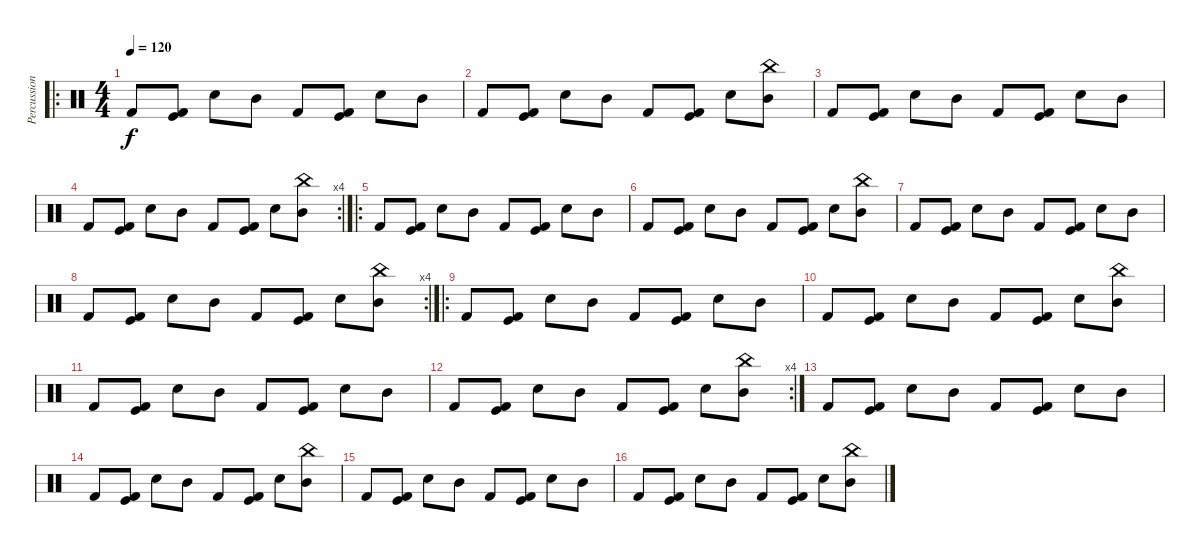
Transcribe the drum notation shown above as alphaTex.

\track ("Percussion" "Percussion") {instrument percussion}
\staff {score}
\articulation defaults
\ro
\ts (4 4)
\tempo 120
\clef neutral
\ks c "Kick (hit) 2".8{dy f}
("Kick (hit)" "Kick (hit) 2").8 "Snare (hit) 2".8 "Mid Tom (hit)".8 "Kick (hit) 2".8 ("Kick (hit)" "Kick (hit) 2").8 "Snare (hit) 2".8 "Mid Tom (hit)".8 |
"Kick (hit) 2".8 ("Kick (hit)" "Kick (hit) 2").8 "Snare (hit) 2".8 "Mid Tom (hit)".8 "Kick (hit) 2".8 ("Kick (hit)" "Kick (hit) 2").8 "Snare (hit) 2".8 ("China (hit)" "Mid Tom (hit)").8 |
"Kick (hit) 2".8 ("Kick (hit)" "Kick (hit) 2").8 "Snare (hit) 2".8 "Mid Tom (hit)".8 "Kick (hit) 2".8 ("Kick (hit)" "Kick (hit) 2").8 "Snare (hit) 2".8 "Mid Tom (hit)".8 |
\rc 4 "Kick (hit) 2".8
("Kick (hit)" "Kick (hit) 2").8 "Snare (hit) 2".8 "Mid Tom (hit)".8 "Kick (hit) 2".8 ("Kick (hit)" "Kick (hit) 2").8 "Snare (hit) 2".8 ("China (hit)" "Mid Tom (hit)").8 |
\ro "Kick (hit) 2".8
("Kick (hit)" "Kick (hit) 2").8 "Snare (hit) 2".8 "Mid Tom (hit)".8 "Kick (hit) 2".8 ("Kick (hit)" "Kick (hit) 2").8 "Snare (hit) 2".8 "Mid Tom (hit)".8 |
"Kick (hit) 2".8 ("Kick (hit)" "Kick (hit) 2").8 "Snare (hit) 2".8 "Mid Tom (hit)".8 "Kick (hit) 2".8 ("Kick (hit)" "Kick (hit) 2").8 "Snare (hit) 2".8 ("China (hit)" "Mid Tom (hit)").8 |
"Kick (hit) 2".8 ("Kick (hit)" "Kick (hit) 2").8 "Snare (hit) 2".8 "Mid Tom (hit)".8 "Kick (hit) 2".8 ("Kick (hit)" "Kick (hit) 2").8 "Snare (hit) 2".8 "Mid Tom (hit)".8 |
\rc 4 "Kick (hit) 2".8
("Kick (hit)" "Kick (hit) 2").8 "Snare (hit) 2".8 "Mid Tom (hit)".8 "Kick (hit) 2".8 ("Kick (hit)" "Kick (hit) 2").8 "Snare (hit) 2".8 ("China (hit)" "Mid Tom (hit)").8 |
\ro "Kick (hit) 2".8
("Kick (hit)" "Kick (hit) 2").8 "Snare (hit) 2".8 "Mid Tom (hit)".8 "Kick (hit) 2".8 ("Kick (hit)" "Kick (hit) 2").8 "Snare (hit) 2".8 "Mid Tom (hit)".8 |
"Kick (hit) 2".8 ("Kick (hit)" "Kick (hit) 2").8 "Snare (hit) 2".8 "Mid Tom (hit)".8 "Kick (hit) 2".8 ("Kick (hit)" "Kick (hit) 2").8 "Snare (hit) 2".8 ("China (hit)" "Mid Tom (hit)").8 |
"Kick (hit) 2".8 ("Kick (hit)" "Kick (hit) 2").8 "Snare (hit) 2".8 "Mid Tom (hit)".8 "Kick (hit) 2".8 ("Kick (hit)" "Kick (hit) 2").8 "Snare (hit) 2".8 "Mid Tom (hit)".8 |
\rc 4 "Kick (hit) 2".8
("Kick (hit)" "Kick (hit) 2").8 "Snare (hit) 2".8 "Mid Tom (hit)".8 "Kick (hit) 2".8 ("Kick (hit)" "Kick (hit) 2").8 "Snare (hit) 2".8 ("China (hit)" "Mid Tom (hit)").8 |
"Kick (hit) 2".8 ("Kick (hit)" "Kick (hit) 2").8 "Snare (hit) 2".8 "Mid Tom (hit)".8 "Kick (hit) 2".8 ("Kick (hit)" "Kick (hit) 2").8 "Snare (hit) 2".8 "Mid Tom (hit)".8 |
"Kick (hit) 2".8 ("Kick (hit)" "Kick (hit) 2").8 "Snare (hit) 2".8 "Mid Tom (hit)".8 "Kick (hit) 2".8 ("Kick (hit)" "Kick (hit) 2").8 "Snare (hit) 2".8 ("China (hit)" "Mid Tom (hit)").8 |
"Kick (hit) 2".8 ("Kick (hit)" "Kick (hit) 2").8 "Snare (hit) 2".8 "Mid Tom (hit)".8 "Kick (hit) 2".8 ("Kick (hit)" "Kick (hit) 2").8 "Snare (hit) 2".8 "Mid Tom (hit)".8 |
"Kick (hit) 2".8 ("Kick (hit)" "Kick (hit) 2").8 "Snare (hit) 2".8 "Mid Tom (hit)".8 "Kick (hit) 2".8 ("Kick (hit)" "Kick (hit) 2").8 "Snare (hit) 2".8 ("China (hit)" "Mid Tom (hit)").8
